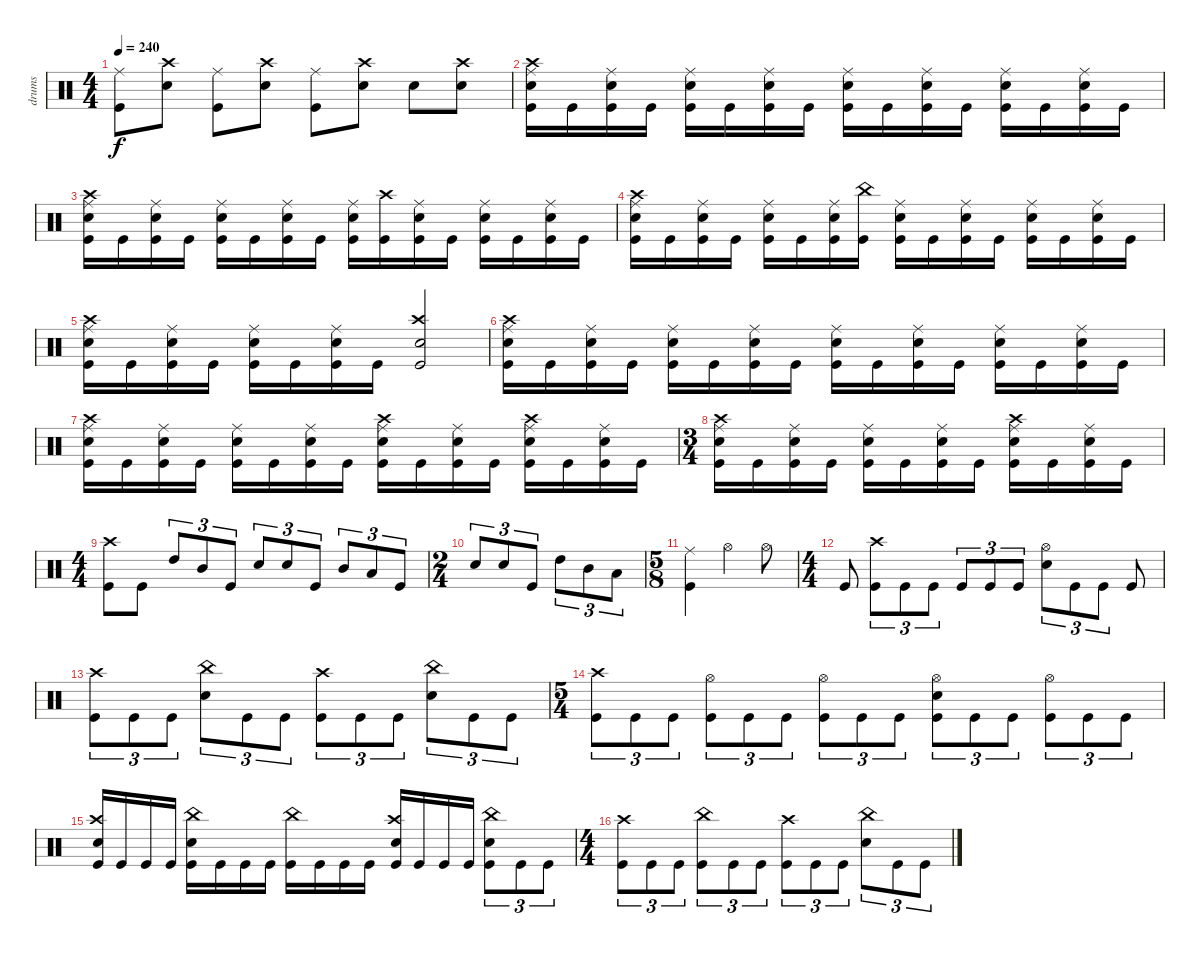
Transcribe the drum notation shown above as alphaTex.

\track ("drums" "drums") {instrument percussion}
\staff {score}
\articulation defaults
\ts (4 4)
\tempo 240
\clef neutral
\ks c
("Ride (middle)" "Kick (hit)").8{dy f} ("Crash high (hit)" "Electric Snare (hit)").8 ("Ride (middle)" "Kick (hit)").8 ("Crash high (hit)" "Electric Snare (hit)").8 ("Ride (middle)" "Kick (hit)").8 ("Crash high (hit)" "Electric Snare (hit)").8 "Electric Snare (hit)".8 ("Crash high (hit)" "Electric Snare (hit)").8 |
("Crash high (hit)" "Ride (middle)" "Electric Snare (hit)" "Kick (hit)").16 "Kick (hit)".16 ("Ride (middle)" "Electric Snare (hit)" "Kick (hit)").16 "Kick (hit)".16 ("Ride (middle)" "Electric Snare (hit)" "Kick (hit)").16 "Kick (hit)".16 ("Ride (middle)" "Electric Snare (hit)" "Kick (hit)").16 "Kick (hit)".16 ("Ride (middle)" "Electric Snare (hit)" "Kick (hit)").16 "Kick (hit)".16 ("Ride (middle)" "Electric Snare (hit)" "Kick (hit)").16 "Kick (hit)".16 ("Ride (middle)" "Electric Snare (hit)" "Kick (hit)").16 "Kick (hit)".16 ("Ride (middle)" "Electric Snare (hit)" "Kick (hit)").16 "Kick (hit)".16 |
("Crash high (hit)" "Ride (middle)" "Electric Snare (hit)" "Kick (hit)").16 "Kick (hit)".16 ("Ride (middle)" "Electric Snare (hit)" "Kick (hit)").16 "Kick (hit)".16 ("Ride (middle)" "Electric Snare (hit)" "Kick (hit)").16 "Kick (hit)".16 ("Ride (middle)" "Electric Snare (hit)" "Kick (hit)").16 "Kick (hit)".16 ("Ride (middle)" "Electric Snare (hit)" "Kick (hit)").16 ("Crash high (hit)" "Kick (hit)").16 ("Ride (middle)" "Electric Snare (hit)" "Kick (hit)").16 "Kick (hit)".16 ("Ride (middle)" "Electric Snare (hit)" "Kick (hit)").16 "Kick (hit)".16 ("Ride (middle)" "Electric Snare (hit)" "Kick (hit)").16 "Kick (hit)".16 |
("Crash high (hit)" "Ride (middle)" "Electric Snare (hit)" "Kick (hit)").16 "Kick (hit)".16 ("Ride (middle)" "Electric Snare (hit)" "Kick (hit)").16 "Kick (hit)".16 ("Ride (middle)" "Electric Snare (hit)" "Kick (hit)").16 "Kick (hit)".16 ("Ride (middle)" "Electric Snare (hit)" "Kick (hit)").16 ("China (hit)" "Kick (hit)").16 ("Ride (middle)" "Electric Snare (hit)" "Kick (hit)").16 "Kick (hit)".16 ("Ride (middle)" "Electric Snare (hit)" "Kick (hit)").16 "Kick (hit)".16 ("Ride (middle)" "Electric Snare (hit)" "Kick (hit)").16 "Kick (hit)".16 ("Ride (middle)" "Electric Snare (hit)" "Kick (hit)").16 "Kick (hit)".16 |
("Crash high (hit)" "Ride (middle)" "Electric Snare (hit)" "Kick (hit)").16 "Kick (hit)".16 ("Ride (middle)" "Electric Snare (hit)" "Kick (hit)").16 "Kick (hit)".16 ("Ride (middle)" "Electric Snare (hit)" "Kick (hit)").16 "Kick (hit)".16 ("Ride (middle)" "Electric Snare (hit)" "Kick (hit)").16 "Kick (hit)".16 ("Crash high (hit)" "Electric Snare (hit)" "Kick (hit)").2 |
("Crash high (hit)" "Ride (middle)" "Electric Snare (hit)" "Kick (hit)").16 "Kick (hit)".16 ("Ride (middle)" "Electric Snare (hit)" "Kick (hit)").16 "Kick (hit)".16 ("Ride (middle)" "Electric Snare (hit)" "Kick (hit)").16 "Kick (hit)".16 ("Ride (middle)" "Electric Snare (hit)" "Kick (hit)").16 "Kick (hit)".16 ("Ride (middle)" "Electric Snare (hit)" "Kick (hit)").16 "Kick (hit)".16 ("Ride (middle)" "Electric Snare (hit)" "Kick (hit)").16 "Kick (hit)".16 ("Ride (middle)" "Electric Snare (hit)" "Kick (hit)").16 "Kick (hit)".16 ("Ride (middle)" "Electric Snare (hit)" "Kick (hit)").16 "Kick (hit)".16 |
("Crash high (hit)" "Ride (middle)" "Electric Snare (hit)" "Kick (hit)").16 "Kick (hit)".16 ("Ride (middle)" "Electric Snare (hit)" "Kick (hit)").16 "Kick (hit)".16 ("Ride (middle)" "Electric Snare (hit)" "Kick (hit)").16 "Kick (hit)".16 ("Ride (middle)" "Electric Snare (hit)" "Kick (hit)").16 "Kick (hit)".16 ("Crash high (hit)" "Ride (middle)" "Electric Snare (hit)" "Kick (hit)").16 "Kick (hit)".16 ("Ride (middle)" "Electric Snare (hit)" "Kick (hit)").16 "Kick (hit)".16 ("Crash high (hit)" "Ride (middle)" "Electric Snare (hit)" "Kick (hit)").16 "Kick (hit)".16 ("Ride (middle)" "Electric Snare (hit)" "Kick (hit)").16 "Kick (hit)".16 |
\ts (3 4)
("Crash high (hit)" "Ride (middle)" "Electric Snare (hit)" "Kick (hit)").16 "Kick (hit)".16 ("Ride (middle)" "Electric Snare (hit)" "Kick (hit)").16 "Kick (hit)".16 ("Ride (middle)" "Electric Snare (hit)" "Kick (hit)").16 "Kick (hit)".16 ("Ride (middle)" "Electric Snare (hit)" "Kick (hit)").16 "Kick (hit)".16 ("Crash high (hit)" "Ride (middle)" "Electric Snare (hit)" "Kick (hit)").16 "Kick (hit)".16 ("Ride (middle)" "Electric Snare (hit)" "Kick (hit)").16 "Kick (hit)".16 |
\ts (4 4)
("Crash high (hit)" "Kick (hit)").8 "Kick (hit)".8 "High Tom (hit)".8{tu (3 2)} "Mid Tom (hit)".8{tu (3 2)} "Kick (hit)".8{tu (3 2)} "Electric Snare (hit)".8{tu (3 2)} "Electric Snare (hit)".8{tu (3 2)} "Kick (hit)".8{tu (3 2)} "Mid Tom (hit)".8{tu (3 2)} "Low Tom (hit)".8{tu (3 2)} "Kick (hit)".8{tu (3 2)} |
\ts (2 4)
"Electric Snare (hit)".8{tu (3 2)} "Electric Snare (hit)".8{tu (3 2)} "Kick (hit)".8{tu (3 2)} "High Tom (hit)".8{tu (3 2)} "Mid Tom (hit)".8{tu (3 2)} "Low Tom (hit)".8{tu (3 2)} |
\ts (5 8)
("Ride (middle)" "Kick (hit)").4 "Hi-Hat (open)".4 "Hi-Hat (open)".8 |
\ts (4 4)
"Kick (hit)".8 ("Crash high (hit)" "Kick (hit)").8{tu (3 2)} "Kick (hit)".8{tu (3 2)} "Kick (hit)".8{tu (3 2)} "Kick (hit)".8{tu (3 2)} "Kick (hit)".8{tu (3 2)} "Kick (hit)".8{tu (3 2)} ("Hi-Hat (open)" "Electric Snare (hit)").8{tu (3 2)} "Kick (hit)".8{tu (3 2)} "Kick (hit)".8{tu (3 2)} "Kick (hit)".8 |
("Crash high (hit)" "Kick (hit)").8{tu (3 2)} "Kick (hit)".8{tu (3 2)} "Kick (hit)".8{tu (3 2)} ("China (hit)" "Electric Snare (hit)").8{tu (3 2)} "Kick (hit)".8{tu (3 2)} "Kick (hit)".8{tu (3 2)} ("Crash high (hit)" "Kick (hit)").8{tu (3 2)} "Kick (hit)".8{tu (3 2)} "Kick (hit)".8{tu (3 2)} ("China (hit)" "Electric Snare (hit)").8{tu (3 2)} "Kick (hit)".8{tu (3 2)} "Kick (hit)".8{tu (3 2)} |
\ts (5 4)
("Crash high (hit)" "Kick (hit)").8{tu (3 2)} "Kick (hit)".8{tu (3 2)} "Kick (hit)".8{tu (3 2)} ("Hi-Hat (open)" "Kick (hit)").8{tu (3 2)} "Kick (hit)".8{tu (3 2)} "Kick (hit)".8{tu (3 2)} ("Hi-Hat (open)" "Kick (hit)").8{tu (3 2)} "Kick (hit)".8{tu (3 2)} "Kick (hit)".8{tu (3 2)} ("Hi-Hat (open)" "Electric Snare (hit)" "Kick (hit)").8{tu (3 2)} "Kick (hit)".8{tu (3 2)} "Kick (hit)".8{tu (3 2)} ("Hi-Hat (open)" "Kick (hit)").8{tu (3 2)} "Kick (hit)".8{tu (3 2)} "Kick (hit)".8{tu (3 2)} |
("Crash high (hit)" "Electric Snare (hit)" "Kick (hit)").16 "Kick (hit)".16 "Kick (hit)".16 "Kick (hit)".16 ("China (hit)" "Electric Snare (hit)" "Kick (hit)").16 "Kick (hit)".16 "Kick (hit)".16 "Kick (hit)".16 ("China (hit)" "Kick (hit)").16 "Kick (hit)".16 "Kick (hit)".16 "Kick (hit)".16 ("Crash high (hit)" "Electric Snare (hit)" "Kick (hit)").16 "Kick (hit)".16 "Kick (hit)".16 "Kick (hit)".16 ("China (hit)" "Electric Snare (hit)" "Kick (hit)").8{tu (3 2)} "Kick (hit)".8{tu (3 2)} "Kick (hit)".8{tu (3 2)} |
\ts (4 4)
("Crash high (hit)" "Kick (hit)").8{tu (3 2)} "Kick (hit)".8{tu (3 2)} "Kick (hit)".8{tu (3 2)} ("China (hit)" "Kick (hit)").8{tu (3 2)} "Kick (hit)".8{tu (3 2)} "Kick (hit)".8{tu (3 2)} ("Crash high (hit)" "Kick (hit)").8{tu (3 2)} "Kick (hit)".8{tu (3 2)} "Kick (hit)".8{tu (3 2)} ("China (hit)" "Electric Snare (hit)").8{tu (3 2)} "Kick (hit)".8{tu (3 2)} "Kick (hit)".8{tu (3 2)}
